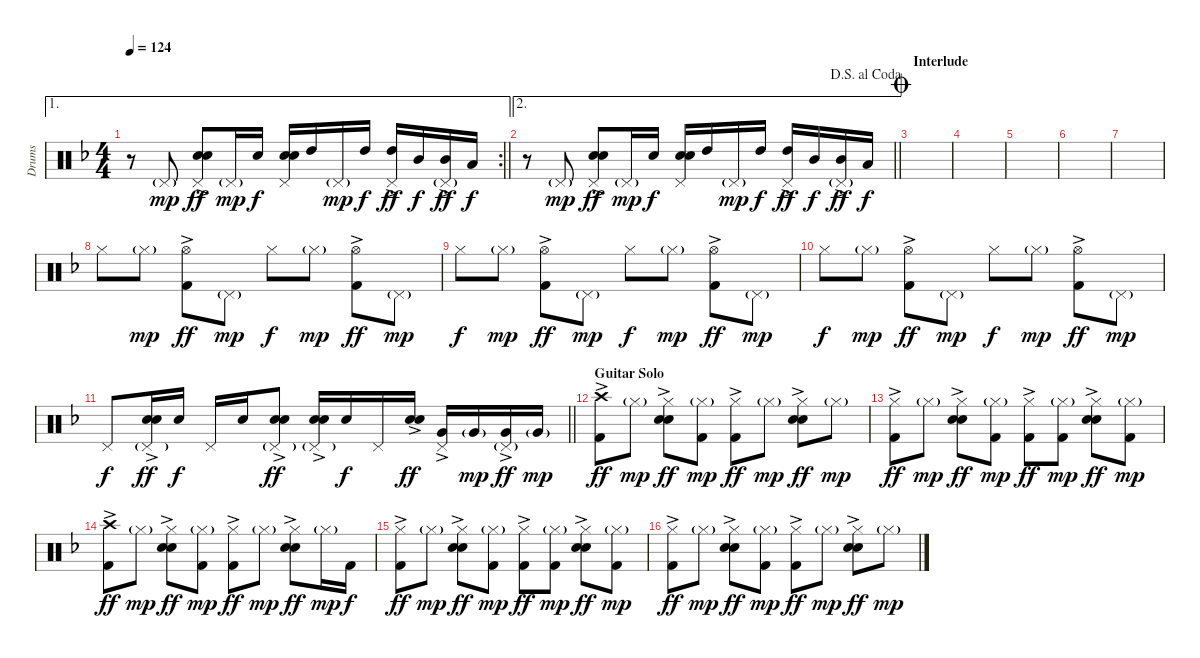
\track ("Drums" "Drums") {instrument percussion}
\staff {score}
\articulation defaults
\ae 1
\rc 2
\ts (4 4)
\tempo 124
\clef neutral
\barLineRight lightlight
\ks f
r.8{dy mp} "Pedal Hi-Hat (hit)"{g}.8 ("Pedal Hi-Hat (hit)" "Electric Snare (hit)"{ac} "Snare (hit) 2").8{dy ff} "Pedal Hi-Hat (hit)"{g}.16{dy mp} "Snare (hit) 2".16{dy f} ("Pedal Hi-Hat (hit)" "Electric Snare (hit)" "Snare (hit) 2").16 "High Tom (hit)".16 "Pedal Hi-Hat (hit)"{g}.16{dy mp} "High Tom (hit)".16{dy f} ("Pedal Hi-Hat (hit)" "High Tom (hit)"{ac}).16{dy ff} "Mid Tom (hit)".16{dy f} ("Pedal Hi-Hat (hit)"{g} "Mid Tom (hit)"{ac}).16{dy ff} "Low Tom (hit)".16{dy f} |
\ae 2
\jump dalsegnoalcoda
\barLineRight lightlight
r.8 "Pedal Hi-Hat (hit)"{g}.8{dy mp} ("Pedal Hi-Hat (hit)" "Electric Snare (hit)"{ac} "Snare (hit) 2").8{dy ff} "Pedal Hi-Hat (hit)"{g}.16{dy mp} "Snare (hit) 2".16{dy f} ("Pedal Hi-Hat (hit)" "Electric Snare (hit)" "Snare (hit) 2").16 "High Tom (hit)".16 "Pedal Hi-Hat (hit)"{g}.16{dy mp} "High Tom (hit)".16{dy f} ("Pedal Hi-Hat (hit)" "High Tom (hit)"{ac}).16{dy ff} "Mid Tom (hit)".16{dy f} ("Pedal Hi-Hat (hit)"{g} "Mid Tom (hit)"{ac}).16{dy ff} "Low Tom (hit)".16{dy f} |
\section ("" "Interlude")
\jump coda
|
|
|
|
|
"Hi-Hat (closed)".8 "Hi-Hat (closed)"{g}.8{dy mp} ("Hi-Hat (open)" "Kick (hit) 2"{ac}).8{dy ff} "Pedal Hi-Hat (hit)"{g}.8{dy mp} "Hi-Hat (closed)".8{dy f} "Hi-Hat (closed)"{g}.8{dy mp} ("Hi-Hat (open)" "Kick (hit) 2"{ac}).8{dy ff} "Pedal Hi-Hat (hit)"{g}.8{dy mp} |
"Hi-Hat (closed)".8{dy f} "Hi-Hat (closed)"{g}.8{dy mp} ("Hi-Hat (open)" "Kick (hit) 2"{ac}).8{dy ff} "Pedal Hi-Hat (hit)"{g}.8{dy mp} "Hi-Hat (closed)".8{dy f} "Hi-Hat (closed)"{g}.8{dy mp} ("Hi-Hat (open)" "Kick (hit) 2"{ac}).8{dy ff} "Pedal Hi-Hat (hit)"{g}.8{dy mp} |
"Hi-Hat (closed)".8{dy f} "Hi-Hat (closed)"{g}.8{dy mp} ("Hi-Hat (open)" "Kick (hit) 2"{ac}).8{dy ff} "Pedal Hi-Hat (hit)"{g}.8{dy mp} "Hi-Hat (closed)".8{dy f} "Hi-Hat (closed)"{g}.8{dy mp} ("Hi-Hat (open)" "Kick (hit) 2"{ac}).8{dy ff} "Pedal Hi-Hat (hit)"{g}.8{dy mp} |
\barLineRight lightlight "Pedal Hi-Hat (hit)".8{dy f}
("Pedal Hi-Hat (hit)"{g} "Electric Snare (hit)"{ac} "Snare (hit) 2").16{dy ff} "Snare (hit) 2".16{dy f} "Pedal Hi-Hat (hit)".16 "Snare (hit) 2".16 ("Pedal Hi-Hat (hit)"{g} "Electric Snare (hit)"{ac} "Snare (hit) 2").8{dy ff} ("Pedal Hi-Hat (hit)"{g} "Electric Snare (hit)"{ac} "Snare (hit) 2").16 "Snare (hit) 2".16{dy f} "Pedal Hi-Hat (hit)".16 ("Electric Snare (hit)"{ac} "Snare (hit) 2"{ac}).16{dy ff} ("Pedal Hi-Hat (hit)"{ac} "Very Low Tom (hit)"{ac}).16 "Very Low Tom (hit)"{g}.16{dy mp} ("Pedal Hi-Hat (hit)"{g} "Very Low Tom (hit)"{ac}).16{dy ff} "Very Low Tom (hit)"{g}.16{dy mp} |
\section ("" "Guitar Solo")
("Crash high (hit)" "Kick (hit) 2"{ac}).8{dy ff} "Hi-Hat (closed)"{g}.8{dy mp} ("Hi-Hat (closed)" "Electric Snare (hit)"{ac} "Snare (hit) 2").8{dy ff} ("Hi-Hat (closed)"{g} "Kick (hit) 2").8{dy mp} ("Hi-Hat (closed)" "Kick (hit) 2"{ac}).8{dy ff} "Hi-Hat (closed)"{g}.8{dy mp} ("Hi-Hat (closed)" "Electric Snare (hit)"{ac} "Snare (hit) 2").8{dy ff} "Hi-Hat (closed)"{g}.8{dy mp} |
("Hi-Hat (closed)" "Kick (hit) 2"{ac}).8{dy ff} "Hi-Hat (closed)"{g}.8{dy mp} ("Hi-Hat (closed)" "Electric Snare (hit)"{ac} "Snare (hit) 2").8{dy ff} ("Hi-Hat (closed)"{g} "Kick (hit) 2").8{dy mp} ("Hi-Hat (closed)" "Kick (hit) 2"{ac}).8{dy ff} ("Hi-Hat (closed)"{g} "Kick (hit) 2").8{dy mp} ("Hi-Hat (closed)" "Electric Snare (hit)"{ac} "Snare (hit) 2").8{dy ff} ("Hi-Hat (closed)"{g} "Kick (hit) 2").8{dy mp} |
("Crash high (hit)" "Kick (hit) 2"{ac}).8{dy ff} "Hi-Hat (closed)"{g}.8{dy mp} ("Hi-Hat (closed)" "Electric Snare (hit)"{ac} "Snare (hit) 2").8{dy ff} ("Hi-Hat (closed)"{g} "Kick (hit) 2").8{dy mp} ("Hi-Hat (closed)" "Kick (hit) 2"{ac}).8{dy ff} "Hi-Hat (closed)"{g}.8{dy mp} ("Hi-Hat (closed)" "Electric Snare (hit)"{ac} "Snare (hit) 2").8{dy ff} "Hi-Hat (closed)"{g}.16{dy mp} "Kick (hit) 2".16{dy f} |
("Hi-Hat (closed)" "Kick (hit) 2"{ac}).8{dy ff} "Hi-Hat (closed)"{g}.8{dy mp} ("Hi-Hat (closed)" "Electric Snare (hit)"{ac} "Snare (hit) 2").8{dy ff} ("Hi-Hat (closed)"{g} "Kick (hit) 2").8{dy mp} ("Hi-Hat (closed)" "Kick (hit) 2"{ac}).8{dy ff} ("Hi-Hat (closed)"{g} "Kick (hit) 2").8{dy mp} ("Hi-Hat (closed)" "Electric Snare (hit)"{ac} "Snare (hit) 2").8{dy ff} ("Hi-Hat (closed)"{g} "Kick (hit) 2").8{dy mp} |
("Hi-Hat (closed)" "Kick (hit) 2"{ac}).8{dy ff} "Hi-Hat (closed)"{g}.8{dy mp} ("Hi-Hat (closed)" "Electric Snare (hit)"{ac} "Snare (hit) 2").8{dy ff} ("Hi-Hat (closed)"{g} "Kick (hit) 2").8{dy mp} ("Hi-Hat (closed)" "Kick (hit) 2"{ac}).8{dy ff} "Hi-Hat (closed)"{g}.8{dy mp} ("Hi-Hat (closed)" "Electric Snare (hit)"{ac} "Snare (hit) 2").8{dy ff} "Hi-Hat (closed)"{g}.8{dy mp}
